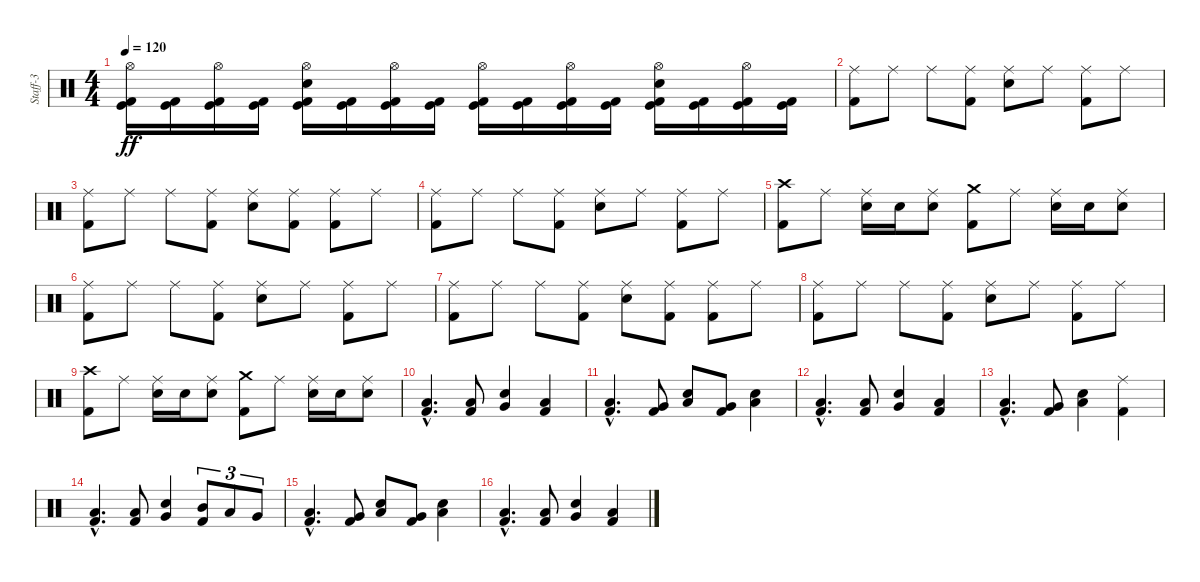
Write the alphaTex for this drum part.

\track ("Staff-3" "Staff-3") {instrument percussion}
\staff {score}
\articulation defaults
\ts (4 4)
\tempo 120
\clef neutral
\ks c
("Kick (hit)" "Kick (hit) 2" "Hi-Hat (open)").16{dy ff} ("Kick (hit)" "Kick (hit) 2").16 ("Kick (hit)" "Kick (hit) 2" "Hi-Hat (open)").16 ("Kick (hit)" "Kick (hit) 2").16 ("Kick (hit)" "Kick (hit) 2" "Snare (hit) 2" "Hi-Hat (open)").16 ("Kick (hit)" "Kick (hit) 2").16 ("Kick (hit)" "Kick (hit) 2" "Hi-Hat (open)").16 ("Kick (hit)" "Kick (hit) 2").16 ("Kick (hit)" "Kick (hit) 2" "Hi-Hat (open)").16 ("Kick (hit)" "Kick (hit) 2").16 ("Kick (hit)" "Kick (hit) 2" "Hi-Hat (open)").16 ("Kick (hit)" "Kick (hit) 2").16 ("Kick (hit)" "Kick (hit) 2" "Snare (hit) 2" "Hi-Hat (open)").16 ("Kick (hit)" "Kick (hit) 2").16 ("Kick (hit)" "Kick (hit) 2" "Hi-Hat (open)").16 ("Kick (hit)" "Kick (hit) 2").16 |
("Kick (hit) 2" "Ride (middle)").8 "Ride (middle)".8 "Ride (middle)".8 ("Kick (hit) 2" "Ride (middle)").8 ("Snare (hit) 2" "Ride (middle)").8 "Ride (middle)".8 ("Kick (hit) 2" "Ride (middle)").8 "Ride (middle)".8 |
("Kick (hit) 2" "Ride (middle)").8 "Ride (middle)".8 "Ride (middle)".8 ("Kick (hit) 2" "Ride (middle)").8 ("Snare (hit) 2" "Ride (middle)").8 ("Kick (hit) 2" "Ride (middle)").8 ("Kick (hit) 2" "Ride (middle)").8 "Ride (middle)".8 |
("Kick (hit) 2" "Ride (middle)").8 "Ride (middle)".8 "Ride (middle)".8 ("Kick (hit) 2" "Ride (middle)").8 ("Snare (hit) 2" "Ride (middle)").8 "Ride (middle)".8 ("Kick (hit) 2" "Ride (middle)").8 "Ride (middle)".8 |
("Kick (hit) 2" "Crash high (hit)").8 "Ride (middle)".8 ("Snare (hit) 2" "Ride (middle)").16 "Snare (hit) 2".16 ("Snare (hit) 2" "Ride (middle)").8 ("Kick (hit) 2" "Crash medium (hit)").8 "Ride (middle)".8 ("Snare (hit) 2" "Ride (middle)").16 "Snare (hit) 2".16 ("Snare (hit) 2" "Ride (middle)").8 |
("Kick (hit) 2" "Ride (middle)").8 "Ride (middle)".8 "Ride (middle)".8 ("Kick (hit) 2" "Ride (middle)").8 ("Snare (hit) 2" "Ride (middle)").8 "Ride (middle)".8 ("Kick (hit) 2" "Ride (middle)").8 "Ride (middle)".8 |
("Kick (hit) 2" "Ride (middle)").8 "Ride (middle)".8 "Ride (middle)".8 ("Kick (hit) 2" "Ride (middle)").8 ("Snare (hit) 2" "Ride (middle)").8 ("Kick (hit) 2" "Ride (middle)").8 ("Kick (hit) 2" "Ride (middle)").8 "Ride (middle)".8 |
("Kick (hit) 2" "Ride (middle)").8 "Ride (middle)".8 "Ride (middle)".8 ("Kick (hit) 2" "Ride (middle)").8 ("Snare (hit) 2" "Ride (middle)").8 "Ride (middle)".8 ("Kick (hit) 2" "Ride (middle)").8 "Ride (middle)".8 |
("Kick (hit) 2" "Crash high (hit)").8 "Ride (middle)".8 ("Snare (hit) 2" "Ride (middle)").16 "Snare (hit) 2".16 ("Snare (hit) 2" "Ride (middle)").8 ("Kick (hit) 2" "Crash medium (hit)").8 "Ride (middle)".8 ("Snare (hit) 2" "Ride (middle)").16 "Snare (hit) 2".16 ("Snare (hit) 2" "Ride (middle)").8 |
("Kick (hit) 2"{hac} "Low Tom (hit)"{hac}).4{d balance 8} ("Kick (hit) 2" "Low Tom (hit)").8{balance 1} ("Snare (hit) 2" "Very Low Tom (hit)").4{balance 15} ("Kick (hit) 2" "Low Tom (hit)").4{balance 1} |
("Kick (hit) 2"{hac} "Low Tom (hit)"{hac}).4{d balance 8} ("Kick (hit) 2" "Very Low Tom (hit)").8{balance 15} ("Snare (hit) 2" "Low Floor Tom (hit)").8{balance 1} ("Kick (hit) 2" "Very Low Tom (hit)").8{balance 8} ("Snare (hit) 2" "Low Floor Tom (hit)").4{balance 15} |
("Kick (hit) 2"{hac} "Low Tom (hit)"{hac}).4{d balance 8} ("Kick (hit) 2" "Low Tom (hit)").8{balance 15} ("Snare (hit) 2" "Very Low Tom (hit)").4{balance 1} ("Kick (hit) 2" "Low Tom (hit)").4{balance 15} |
("Kick (hit) 2"{hac} "Low Tom (hit)"{hac}).4{d balance 8} ("Kick (hit) 2" "Very Low Tom (hit)").8{balance 1} ("Snare (hit) 2" "Low Floor Tom (hit)").4{balance 15} ("Kick (hit) 2" "Ride (middle)").4{balance 1} |
("Kick (hit) 2"{hac} "Low Tom (hit)"{hac}).4{d balance 8} ("Kick (hit) 2" "Low Tom (hit)").8{balance 1} ("Snare (hit) 2" "Very Low Tom (hit)").4{balance 15} ("Kick (hit) 2" "Mid Tom (hit)").8{tu (3 2) balance 1} "Low Tom (hit)".8{tu (3 2)} "Very Low Tom (hit)".8{tu (3 2)} |
("Kick (hit) 2"{hac} "Low Tom (hit)"{hac}).4{d balance 8} ("Kick (hit) 2" "Very Low Tom (hit)").8{balance 15} ("Snare (hit) 2" "Low Floor Tom (hit)").8{balance 1} ("Kick (hit) 2" "Very Low Tom (hit)").8{balance 8} ("Snare (hit) 2" "Low Floor Tom (hit)").4{balance 15} |
("Kick (hit) 2"{hac} "Low Tom (hit)"{hac}).4{d balance 8} ("Kick (hit) 2" "Low Tom (hit)").8{balance 15} ("Snare (hit) 2" "Very Low Tom (hit)").4{balance 1} ("Kick (hit) 2" "Low Tom (hit)").4{balance 15}
